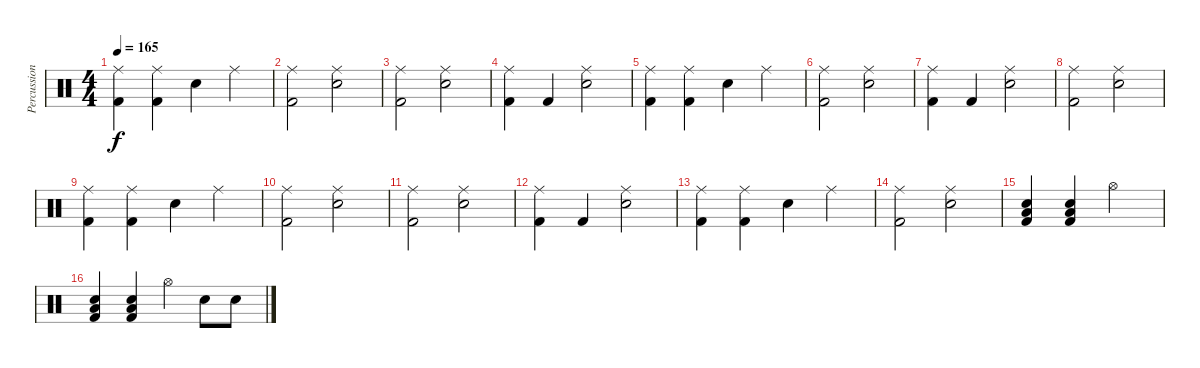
\track ("Percussion" "Percussion") {instrument percussion}
\staff {score}
\articulation defaults
\ts (4 4)
\tempo 165
\clef neutral
\ks c
("Ride (middle)" "Kick (hit) 2").4{dy f} ("Ride (middle)" "Kick (hit) 2").4 "Snare (hit) 2".4 "Ride (middle)".4 |
("Ride (middle)" "Kick (hit) 2").2 ("Ride (middle)" "Snare (hit) 2").2 |
("Ride (middle)" "Kick (hit) 2").2 ("Ride (middle)" "Snare (hit) 2").2 |
("Ride (middle)" "Kick (hit) 2").4 "Kick (hit) 2".4 ("Ride (middle)" "Snare (hit) 2").2 |
("Ride (middle)" "Kick (hit) 2").4 ("Ride (middle)" "Kick (hit) 2").4 "Snare (hit) 2".4 "Ride (middle)".4 |
("Ride (middle)" "Kick (hit) 2").2 ("Ride (middle)" "Snare (hit) 2").2 |
("Ride (middle)" "Kick (hit) 2").4 "Kick (hit) 2".4 ("Ride (middle)" "Snare (hit) 2").2 |
("Ride (middle)" "Kick (hit) 2").2 ("Ride (middle)" "Snare (hit) 2").2 |
("Ride (middle)" "Kick (hit) 2").4 ("Ride (middle)" "Kick (hit) 2").4 "Snare (hit) 2".4 "Ride (middle)".4 |
("Ride (middle)" "Kick (hit) 2").2 ("Ride (middle)" "Snare (hit) 2").2 |
("Ride (middle)" "Kick (hit) 2").2 ("Ride (middle)" "Snare (hit) 2").2 |
("Ride (middle)" "Kick (hit) 2").4 "Kick (hit) 2".4 ("Ride (middle)" "Snare (hit) 2").2 |
("Ride (middle)" "Kick (hit) 2").4 ("Ride (middle)" "Kick (hit) 2").4 "Snare (hit) 2".4 "Ride (middle)".4 |
("Ride (middle)" "Kick (hit) 2").2 ("Ride (middle)" "Snare (hit) 2").2 |
("Snare (hit) 2" "Low Tom (hit)" "Kick (hit) 2").4 ("Snare (hit) 2" "Low Tom (hit)" "Kick (hit) 2").4 "Hi-Hat (open)".2 |
("Snare (hit) 2" "Low Tom (hit)" "Kick (hit) 2").4 ("Snare (hit) 2" "Low Tom (hit)" "Kick (hit) 2").4 "Hi-Hat (open)".4 "Snare (hit) 2".8 "Snare (hit) 2".8
